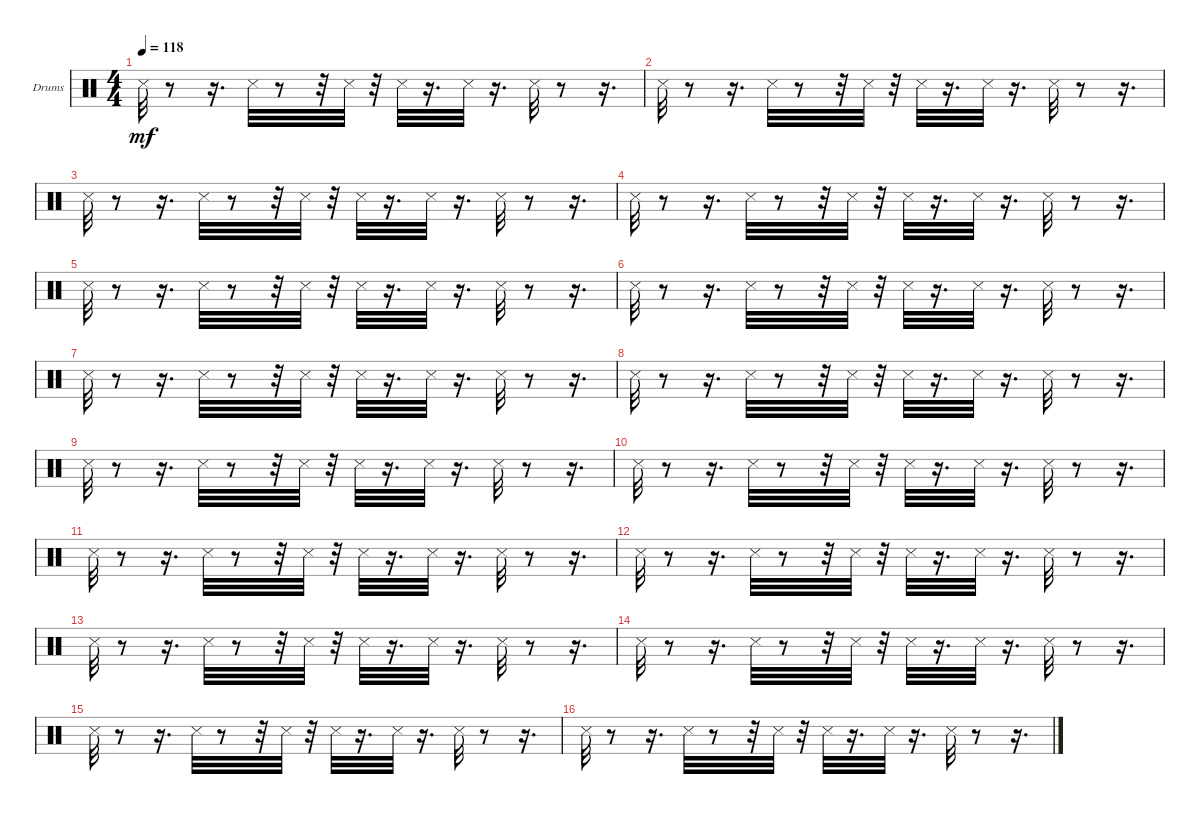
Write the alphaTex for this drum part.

\bracketExtendMode groupsimilarinstruments
\firstSystemTrackNameOrientation horizontal
\otherSystemsTrackNameOrientation horizontal
\track ("Drums" "Drums") {instrument percussion}
\staff {score}
\articulation defaults
\ts (4 4)
\tempo 118
\clef neutral
\ks c "Snare (side stick) 3".32{dy mf}
r.8 r.16{d} "Snare (side stick) 3".32 r.8 r.32 "Snare (side stick) 3".32 r.32 "Snare (side stick) 3".32 r.16{d} "Snare (side stick) 3".32 r.16{d} "Snare (side stick) 3".32 r.8 r.16{d} |
"Snare (side stick) 3".32 r.8 r.16{d} "Snare (side stick) 3".32 r.8 r.32 "Snare (side stick) 3".32 r.32 "Snare (side stick) 3".32 r.16{d} "Snare (side stick) 3".32 r.16{d} "Snare (side stick) 3".32 r.8 r.16{d} |
"Snare (side stick) 3".32 r.8 r.16{d} "Snare (side stick) 3".32 r.8 r.32 "Snare (side stick) 3".32 r.32 "Snare (side stick) 3".32 r.16{d} "Snare (side stick) 3".32 r.16{d} "Snare (side stick) 3".32 r.8 r.16{d} |
"Snare (side stick) 3".32 r.8 r.16{d} "Snare (side stick) 3".32 r.8 r.32 "Snare (side stick) 3".32 r.32 "Snare (side stick) 3".32 r.16{d} "Snare (side stick) 3".32 r.16{d} "Snare (side stick) 3".32 r.8 r.16{d} |
"Snare (side stick) 3".32 r.8 r.16{d} "Snare (side stick) 3".32 r.8 r.32 "Snare (side stick) 3".32 r.32 "Snare (side stick) 3".32 r.16{d} "Snare (side stick) 3".32 r.16{d} "Snare (side stick) 3".32 r.8 r.16{d} |
"Snare (side stick) 3".32 r.8 r.16{d} "Snare (side stick) 3".32 r.8 r.32 "Snare (side stick) 3".32 r.32 "Snare (side stick) 3".32 r.16{d} "Snare (side stick) 3".32 r.16{d} "Snare (side stick) 3".32 r.8 r.16{d} |
"Snare (side stick) 3".32 r.8 r.16{d} "Snare (side stick) 3".32 r.8 r.32 "Snare (side stick) 3".32 r.32 "Snare (side stick) 3".32 r.16{d} "Snare (side stick) 3".32 r.16{d} "Snare (side stick) 3".32 r.8 r.16{d} |
"Snare (side stick) 3".32 r.8 r.16{d} "Snare (side stick) 3".32 r.8 r.32 "Snare (side stick) 3".32 r.32 "Snare (side stick) 3".32 r.16{d} "Snare (side stick) 3".32 r.16{d} "Snare (side stick) 3".32 r.8 r.16{d} |
"Snare (side stick) 3".32 r.8 r.16{d} "Snare (side stick) 3".32 r.8 r.32 "Snare (side stick) 3".32 r.32 "Snare (side stick) 3".32 r.16{d} "Snare (side stick) 3".32 r.16{d} "Snare (side stick) 3".32 r.8 r.16{d} |
"Snare (side stick) 3".32 r.8 r.16{d} "Snare (side stick) 3".32 r.8 r.32 "Snare (side stick) 3".32 r.32 "Snare (side stick) 3".32 r.16{d} "Snare (side stick) 3".32 r.16{d} "Snare (side stick) 3".32 r.8 r.16{d} |
"Snare (side stick) 3".32 r.8 r.16{d} "Snare (side stick) 3".32 r.8 r.32 "Snare (side stick) 3".32 r.32 "Snare (side stick) 3".32 r.16{d} "Snare (side stick) 3".32 r.16{d} "Snare (side stick) 3".32 r.8 r.16{d} |
"Snare (side stick) 3".32 r.8 r.16{d} "Snare (side stick) 3".32 r.8 r.32 "Snare (side stick) 3".32 r.32 "Snare (side stick) 3".32 r.16{d} "Snare (side stick) 3".32 r.16{d} "Snare (side stick) 3".32 r.8 r.16{d} |
"Snare (side stick) 3".32 r.8 r.16{d} "Snare (side stick) 3".32 r.8 r.32 "Snare (side stick) 3".32 r.32 "Snare (side stick) 3".32 r.16{d} "Snare (side stick) 3".32 r.16{d} "Snare (side stick) 3".32 r.8 r.16{d} |
"Snare (side stick) 3".32 r.8 r.16{d} "Snare (side stick) 3".32 r.8 r.32 "Snare (side stick) 3".32 r.32 "Snare (side stick) 3".32 r.16{d} "Snare (side stick) 3".32 r.16{d} "Snare (side stick) 3".32 r.8 r.16{d} |
"Snare (side stick) 3".32 r.8 r.16{d} "Snare (side stick) 3".32 r.8 r.32 "Snare (side stick) 3".32 r.32 "Snare (side stick) 3".32 r.16{d} "Snare (side stick) 3".32 r.16{d} "Snare (side stick) 3".32 r.8 r.16{d} |
"Snare (side stick) 3".32 r.8 r.16{d} "Snare (side stick) 3".32 r.8 r.32 "Snare (side stick) 3".32 r.32 "Snare (side stick) 3".32 r.16{d} "Snare (side stick) 3".32 r.16{d} "Snare (side stick) 3".32 r.8 r.16{d}
